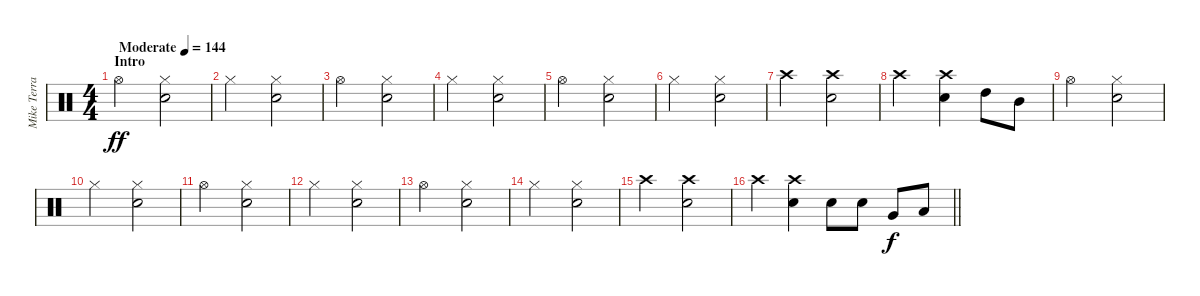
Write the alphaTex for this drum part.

\track ("Mike Terrana" "Mike Terra") {instrument percussion}
\staff {score}
\articulation defaults
\ts (4 4)
\section ("" "Intro")
\tempo (144 "Moderate")
\clef neutral
\ks c "Hi-Hat (open)".2{dy ff}
("Snare (hit) 2" "Hi-Hat (closed)").2 |
"Hi-Hat (closed)".2 ("Snare (hit) 2" "Hi-Hat (closed)").2 |
"Hi-Hat (open)".2 ("Snare (hit) 2" "Hi-Hat (closed)").2 |
"Hi-Hat (closed)".2 ("Snare (hit) 2" "Hi-Hat (closed)").2 |
"Hi-Hat (open)".2 ("Snare (hit) 2" "Hi-Hat (closed)").2 |
"Hi-Hat (closed)".2 ("Snare (hit) 2" "Hi-Hat (closed)").2 |
"Crash high (hit)".2 ("Snare (hit) 2" "Crash high (hit)").2 |
"Crash high (hit)".2 ("Snare (hit) 2" "Crash high (hit)").4 "High Tom (hit)".8 "Mid Tom (hit)".8 |
"Hi-Hat (open)".2 ("Snare (hit) 2" "Hi-Hat (closed)").2 |
"Hi-Hat (closed)".2 ("Snare (hit) 2" "Hi-Hat (closed)").2 |
"Hi-Hat (open)".2 ("Snare (hit) 2" "Hi-Hat (closed)").2 |
"Hi-Hat (closed)".2 ("Snare (hit) 2" "Hi-Hat (closed)").2 |
"Hi-Hat (open)".2 ("Snare (hit) 2" "Hi-Hat (closed)").2 |
"Hi-Hat (closed)".2 ("Snare (hit) 2" "Hi-Hat (closed)").2 |
"Crash high (hit)".2 ("Snare (hit) 2" "Crash high (hit)").2 |
\barLineRight lightlight "Crash high (hit)".4
("Snare (hit) 2" "Crash high (hit)").4 "Snare (hit) 2".8 "Snare (hit) 2".8 "Very Low Tom (hit)".8{dy f} "Low Floor Tom (hit)".8
